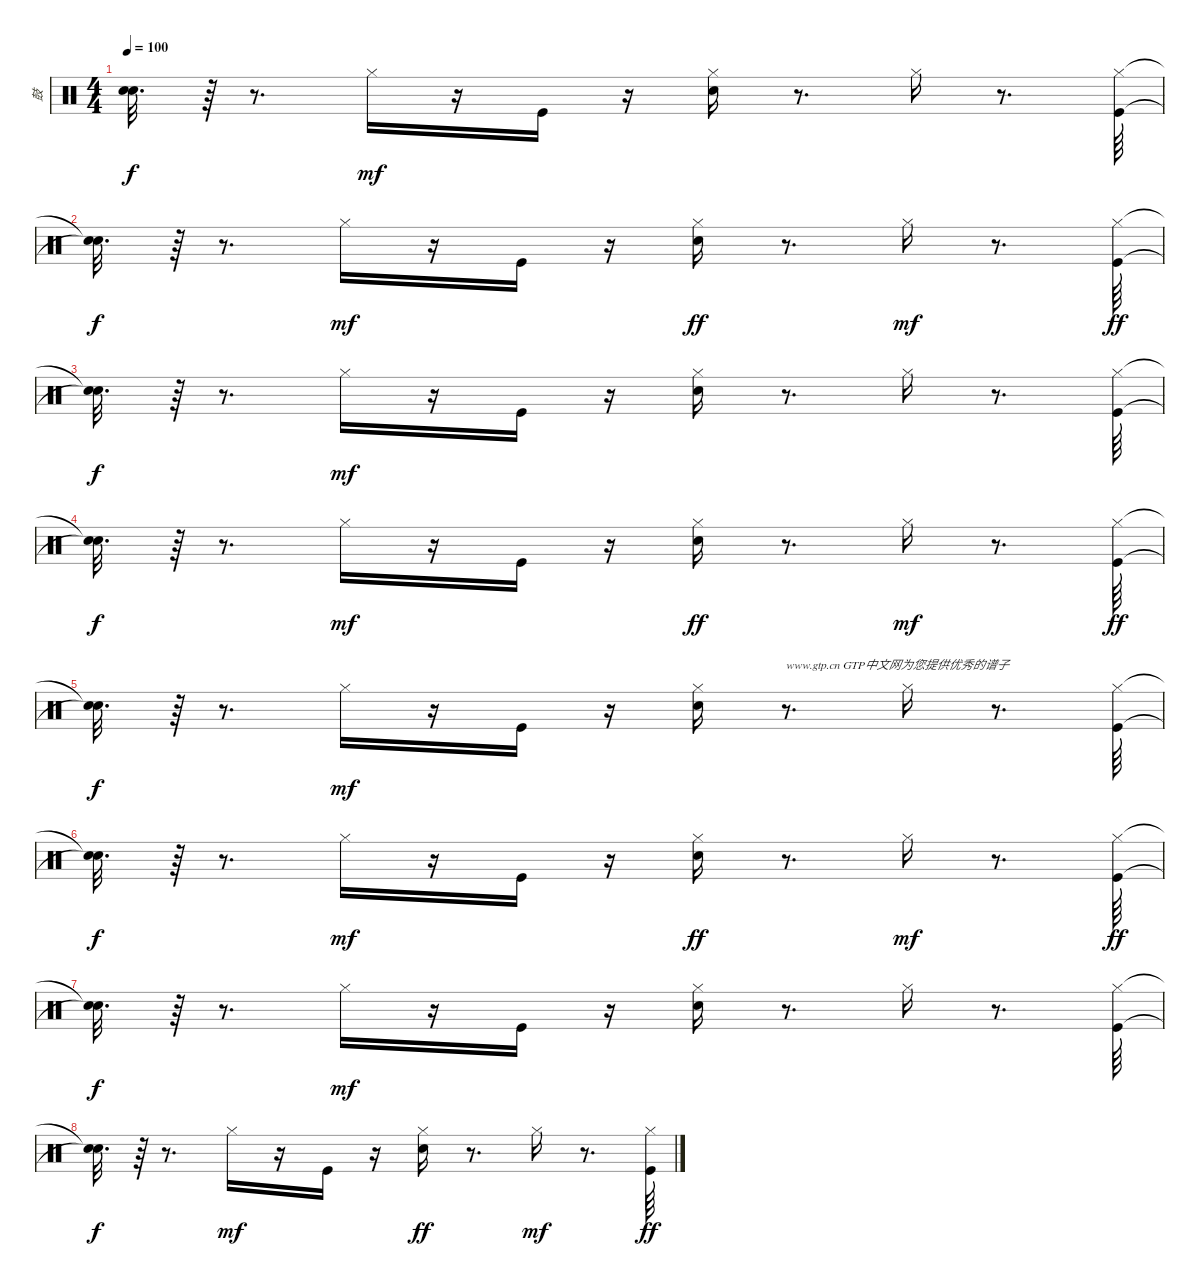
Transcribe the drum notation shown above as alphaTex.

\track ("鼓" "鼓") {instrument percussion}
\staff {score}
\articulation defaults
\ts (4 4)
\tempo 100
\clef neutral
\ks c
("Snare (hit)"{t} "Snare (hit)"{t}).32{d dy f} r.64 r.8{d} "Hi-Hat (closed)".16{dy mf} r.16 "Kick (hit)".16 r.16 ("Electric Snare (hit)" "Hi-Hat (closed)").16 r.8{d} "Hi-Hat (closed)".16 r.8{d} ("Kick (hit)" "Hi-Hat (closed)").64 |
("Snare (hit)"{t} "Snare (hit)"{t}).32{d dy f} r.64 r.8{d} "Hi-Hat (closed)".16{dy mf} r.16 "Kick (hit)".16 r.16 ("Hi-Hat (closed)" "Electric Snare (hit)").16{dy ff} r.8{d} "Hi-Hat (closed)".16{dy mf} r.8{d} ("Kick (hit)" "Hi-Hat (closed)").64{dy ff} |
("Snare (hit)"{t} "Snare (hit)"{t}).32{d dy f} r.64 r.8{d} "Hi-Hat (closed)".16{dy mf} r.16 "Kick (hit)".16 r.16 ("Electric Snare (hit)" "Hi-Hat (closed)").16 r.8{d} "Hi-Hat (closed)".16 r.8{d} ("Kick (hit)" "Hi-Hat (closed)").64 |
("Snare (hit)"{t} "Snare (hit)"{t}).32{d dy f} r.64 r.8{d} "Hi-Hat (closed)".16{dy mf} r.16 "Kick (hit)".16 r.16 ("Hi-Hat (closed)" "Electric Snare (hit)").16{dy ff} r.8{d} "Hi-Hat (closed)".16{dy mf} r.8{d} ("Kick (hit)" "Hi-Hat (closed)").64{dy ff} |
("Snare (hit)"{t} "Snare (hit)"{t}).32{d dy f} r.64 r.8{d} "Hi-Hat (closed)".16{dy mf} r.16 "Kick (hit)".16 r.16 ("Electric Snare (hit)" "Hi-Hat (closed)").16 r.8{d txt "www.gtp.cn GTP中文网为您提供优秀的谱子"} "Hi-Hat (closed)".16 r.8{d} ("Kick (hit)" "Hi-Hat (closed)").64 |
("Snare (hit)"{t} "Snare (hit)"{t}).32{d dy f} r.64 r.8{d} "Hi-Hat (closed)".16{dy mf} r.16 "Kick (hit)".16 r.16 ("Hi-Hat (closed)" "Electric Snare (hit)").16{dy ff} r.8{d} "Hi-Hat (closed)".16{dy mf} r.8{d} ("Kick (hit)" "Hi-Hat (closed)").64{dy ff} |
("Snare (hit)"{t} "Snare (hit)"{t}).32{d dy f} r.64 r.8{d} "Hi-Hat (closed)".16{dy mf} r.16 "Kick (hit)".16 r.16 ("Electric Snare (hit)" "Hi-Hat (closed)").16 r.8{d} "Hi-Hat (closed)".16 r.8{d} ("Kick (hit)" "Hi-Hat (closed)").64 |
("Snare (hit)"{t} "Snare (hit)"{t}).32{d dy f} r.64 r.8{d} "Hi-Hat (closed)".16{dy mf} r.16 "Kick (hit)".16 r.16 ("Hi-Hat (closed)" "Electric Snare (hit)").16{dy ff} r.8{d} "Hi-Hat (closed)".16{dy mf} r.8{d} ("Kick (hit)" "Hi-Hat (closed)").64{dy ff}
